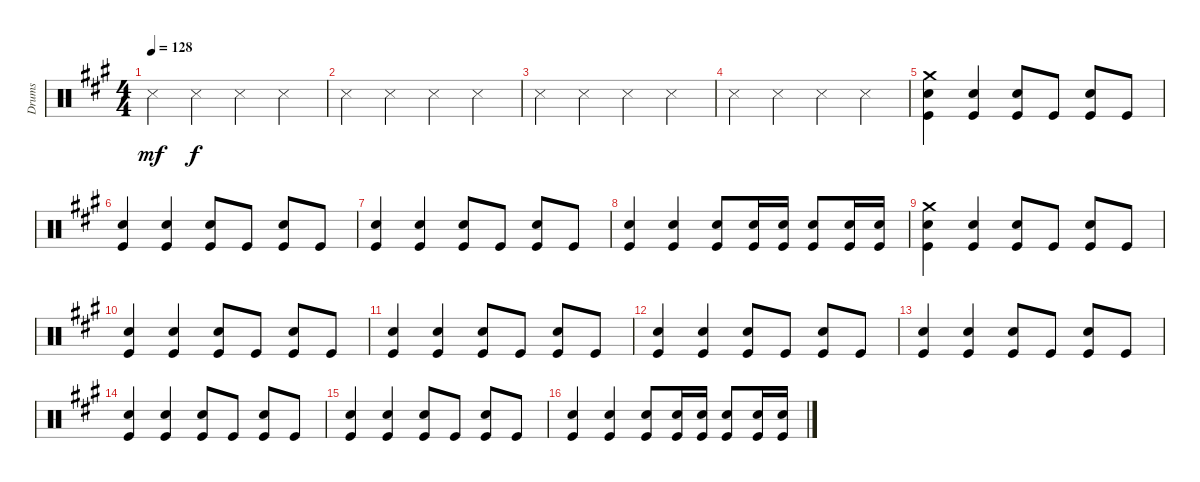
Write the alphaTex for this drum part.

\defaultSystemsLayout 4
\bracketExtendMode groupsimilarinstruments
\otherSystemsTrackNameOrientation horizontal
\track ("Drumkit" "Drums") {instrument percussion}
\staff {score}
\articulation defaults
\ts (4 4)
\beaming (8 2 2 2 2)
\tempo 128
\clef neutral
\ks a "Snare (side stick) 3".4{dy mf} "Snare (side stick) 3".4{dy f} "Snare (side stick) 3".4 "Snare (side stick) 3".4
|
"Snare (side stick) 3".4 "Snare (side stick) 3".4 "Snare (side stick) 3".4 "Snare (side stick) 3".4 |
"Snare (side stick) 3".4 "Snare (side stick) 3".4 "Snare (side stick) 3".4 "Snare (side stick) 3".4 |
"Snare (side stick) 3".4 "Snare (side stick) 3".4 "Snare (side stick) 3".4 "Snare (side stick) 3".4 |
("Crash medium (hit)" "Snare (hit) 2" "Kick (hit)").4 ("Snare (hit) 2" "Kick (hit)").4 ("Snare (hit) 2" "Kick (hit)").8 "Kick (hit)".8 ("Snare (hit) 2" "Kick (hit)").8 "Kick (hit)".8 |
("Snare (hit) 2" "Kick (hit)").4 ("Snare (hit) 2" "Kick (hit)").4 ("Snare (hit) 2" "Kick (hit)").8 "Kick (hit)".8 ("Snare (hit) 2" "Kick (hit)").8 "Kick (hit)".8 |
("Snare (hit) 2" "Kick (hit)").4 ("Snare (hit) 2" "Kick (hit)").4 ("Snare (hit) 2" "Kick (hit)").8 "Kick (hit)".8 ("Snare (hit) 2" "Kick (hit)").8 "Kick (hit)".8 |
("Snare (hit) 2" "Kick (hit)").4 ("Snare (hit) 2" "Kick (hit)").4 ("Snare (hit) 2" "Kick (hit)").8 ("Snare (hit) 2" "Kick (hit)").16 ("Snare (hit) 2" "Kick (hit)").16 ("Snare (hit) 2" "Kick (hit)").8 ("Snare (hit) 2" "Kick (hit)").16 ("Snare (hit) 2" "Kick (hit)").16 |
("Crash medium (hit)" "Snare (hit) 2" "Kick (hit)").4 ("Snare (hit) 2" "Kick (hit)").4 ("Snare (hit) 2" "Kick (hit)").8 "Kick (hit)".8 ("Snare (hit) 2" "Kick (hit)").8 "Kick (hit)".8 |
("Snare (hit) 2" "Kick (hit)").4 ("Snare (hit) 2" "Kick (hit)").4 ("Snare (hit) 2" "Kick (hit)").8 "Kick (hit)".8 ("Snare (hit) 2" "Kick (hit)").8 "Kick (hit)".8 |
("Snare (hit) 2" "Kick (hit)").4 ("Snare (hit) 2" "Kick (hit)").4 ("Snare (hit) 2" "Kick (hit)").8 "Kick (hit)".8 ("Snare (hit) 2" "Kick (hit)").8 "Kick (hit)".8 |
("Snare (hit) 2" "Kick (hit)").4 ("Snare (hit) 2" "Kick (hit)").4 ("Snare (hit) 2" "Kick (hit)").8 "Kick (hit)".8 ("Snare (hit) 2" "Kick (hit)").8 "Kick (hit)".8 |
("Snare (hit) 2" "Kick (hit)").4 ("Snare (hit) 2" "Kick (hit)").4 ("Snare (hit) 2" "Kick (hit)").8 "Kick (hit)".8 ("Snare (hit) 2" "Kick (hit)").8 "Kick (hit)".8 |
("Snare (hit) 2" "Kick (hit)").4 ("Snare (hit) 2" "Kick (hit)").4 ("Snare (hit) 2" "Kick (hit)").8 "Kick (hit)".8 ("Snare (hit) 2" "Kick (hit)").8 "Kick (hit)".8 |
("Snare (hit) 2" "Kick (hit)").4 ("Snare (hit) 2" "Kick (hit)").4 ("Snare (hit) 2" "Kick (hit)").8 "Kick (hit)".8 ("Snare (hit) 2" "Kick (hit)").8 "Kick (hit)".8 |
("Snare (hit) 2" "Kick (hit)").4 ("Snare (hit) 2" "Kick (hit)").4 ("Snare (hit) 2" "Kick (hit)").8 ("Snare (hit) 2" "Kick (hit)").16 ("Snare (hit) 2" "Kick (hit)").16 ("Snare (hit) 2" "Kick (hit)").8 ("Snare (hit) 2" "Kick (hit)").16 ("Snare (hit) 2" "Kick (hit)").16
